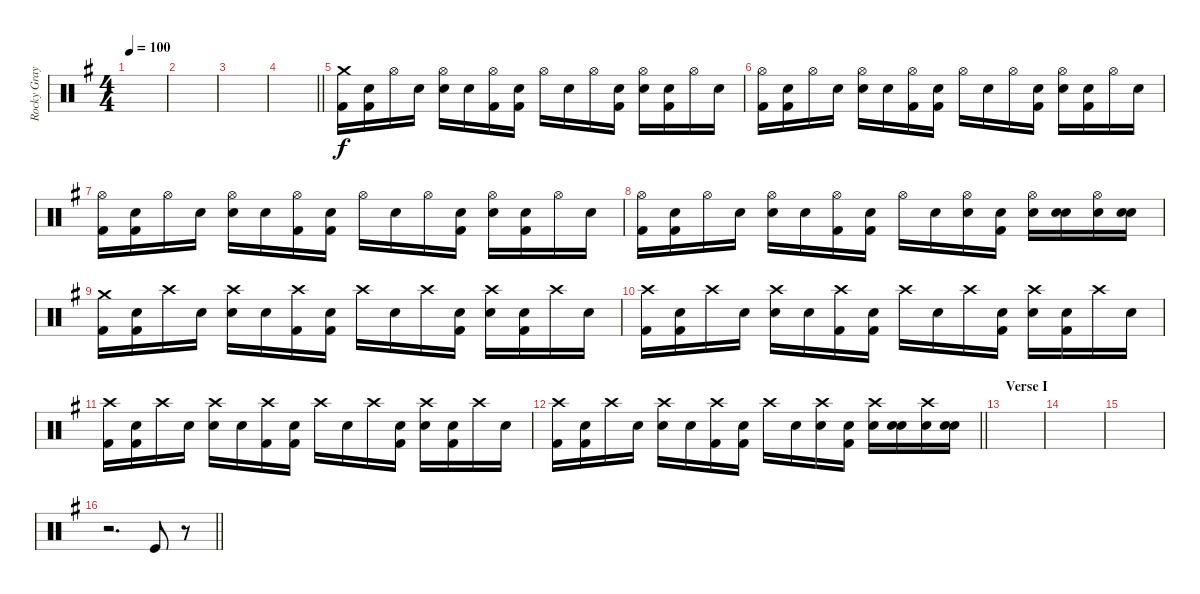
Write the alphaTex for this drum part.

\track ("Rocky Gray" "Rocky Gray") {instrument percussion}
\staff {score}
\articulation defaults
\ts (4 4)
\tempo 100
\clef neutral
\ks g
|
|
|
\barLineRight lightlight
|
("Crash medium (hit)" "Kick (hit) 2").16 ("Snare (hit)" "Kick (hit) 2").16 "Hi-Hat (open)".16 "Snare (hit)".16 ("Hi-Hat (open)" "Snare (hit) 2").16 "Snare (hit)".16 ("Hi-Hat (open)" "Kick (hit) 2").16 ("Snare (hit)" "Kick (hit) 2").16 "Hi-Hat (open)".16 "Snare (hit)".16 "Hi-Hat (open)".16 ("Snare (hit)" "Kick (hit) 2").16 ("Hi-Hat (open)" "Snare (hit) 2").16 ("Snare (hit)" "Kick (hit) 2").16 "Hi-Hat (open)".16 "Snare (hit)".16 |
("Hi-Hat (open)" "Kick (hit) 2").16 ("Snare (hit)" "Kick (hit) 2").16 "Hi-Hat (open)".16 "Snare (hit)".16 ("Hi-Hat (open)" "Snare (hit) 2").16 "Snare (hit)".16 ("Hi-Hat (open)" "Kick (hit) 2").16 ("Snare (hit)" "Kick (hit) 2").16 "Hi-Hat (open)".16 "Snare (hit)".16 "Hi-Hat (open)".16 ("Snare (hit)" "Kick (hit) 2").16 ("Hi-Hat (open)" "Snare (hit) 2").16 ("Snare (hit)" "Kick (hit) 2").16 "Hi-Hat (open)".16 "Snare (hit)".16 |
("Hi-Hat (open)" "Kick (hit) 2").16 ("Snare (hit)" "Kick (hit) 2").16 "Hi-Hat (open)".16 "Snare (hit)".16 ("Hi-Hat (open)" "Snare (hit) 2").16 "Snare (hit)".16 ("Hi-Hat (open)" "Kick (hit) 2").16 ("Snare (hit)" "Kick (hit) 2").16 "Hi-Hat (open)".16 "Snare (hit)".16 "Hi-Hat (open)".16 ("Snare (hit)" "Kick (hit) 2").16 ("Hi-Hat (open)" "Snare (hit) 2").16 ("Snare (hit)" "Kick (hit) 2").16 "Hi-Hat (open)".16 "Snare (hit)".16 |
("Hi-Hat (open)" "Kick (hit) 2").16 ("Snare (hit)" "Kick (hit) 2").16 "Hi-Hat (open)".16 "Snare (hit)".16 ("Hi-Hat (open)" "Snare (hit) 2").16 "Snare (hit)".16 ("Hi-Hat (open)" "Kick (hit) 2").16 ("Snare (hit)" "Kick (hit) 2").16 "Hi-Hat (open)".16 "Snare (hit)".16 ("Hi-Hat (open)" "Snare (hit) 2").16 ("Snare (hit)" "Kick (hit) 2").16 ("Hi-Hat (open)" "Snare (hit) 2").16 ("Snare (hit)" "Snare (hit) 2").16 ("Hi-Hat (open)" "Snare (hit) 2").16 ("Snare (hit)" "Snare (hit) 2").16 |
("Crash medium (hit)" "Kick (hit) 2").16 ("Snare (hit)" "Kick (hit) 2").16 "Crash high (hit)".16 "Snare (hit)".16 ("Crash high (hit)" "Snare (hit) 2").16 "Snare (hit)".16 ("Crash high (hit)" "Kick (hit) 2").16 ("Snare (hit)" "Kick (hit) 2").16 "Crash high (hit)".16 "Snare (hit)".16 "Crash high (hit)".16 ("Snare (hit)" "Kick (hit) 2").16 ("Crash high (hit)" "Snare (hit) 2").16 ("Snare (hit)" "Kick (hit) 2").16 "Crash high (hit)".16 "Snare (hit)".16 |
("Crash high (hit)" "Kick (hit) 2").16 ("Snare (hit)" "Kick (hit) 2").16 "Crash high (hit)".16 "Snare (hit)".16 ("Crash high (hit)" "Snare (hit) 2").16 "Snare (hit)".16 ("Crash high (hit)" "Kick (hit) 2").16 ("Snare (hit)" "Kick (hit) 2").16 "Crash high (hit)".16 "Snare (hit)".16 "Crash high (hit)".16 ("Snare (hit)" "Kick (hit) 2").16 ("Crash high (hit)" "Snare (hit) 2").16 ("Snare (hit)" "Kick (hit) 2").16 "Crash high (hit)".16 "Snare (hit)".16 |
("Crash high (hit)" "Kick (hit) 2").16 ("Snare (hit)" "Kick (hit) 2").16 "Crash high (hit)".16 "Snare (hit)".16 ("Crash high (hit)" "Snare (hit) 2").16 "Snare (hit)".16 ("Crash high (hit)" "Kick (hit) 2").16 ("Snare (hit)" "Kick (hit) 2").16 "Crash high (hit)".16 "Snare (hit)".16 "Crash high (hit)".16 ("Snare (hit)" "Kick (hit) 2").16 ("Crash high (hit)" "Snare (hit) 2").16 ("Snare (hit)" "Kick (hit) 2").16 "Crash high (hit)".16 "Snare (hit)".16 |
\barLineRight lightlight
("Crash high (hit)" "Kick (hit) 2").16 ("Snare (hit)" "Kick (hit) 2").16 "Crash high (hit)".16 "Snare (hit)".16 ("Crash high (hit)" "Snare (hit) 2").16 "Snare (hit)".16 ("Crash high (hit)" "Kick (hit) 2").16 ("Snare (hit)" "Kick (hit) 2").16 "Crash high (hit)".16 "Snare (hit)".16 ("Crash high (hit)" "Snare (hit) 2").16 ("Snare (hit)" "Kick (hit) 2").16 ("Crash high (hit)" "Snare (hit) 2").16 ("Snare (hit)" "Snare (hit) 2").16 ("Crash high (hit)" "Snare (hit) 2").16 ("Snare (hit)" "Snare (hit) 2").16 |
\section ("" "Verse I")
|
|
|
\barLineRight lightlight
r.2{d} "Kick (hit)".8 r.8
